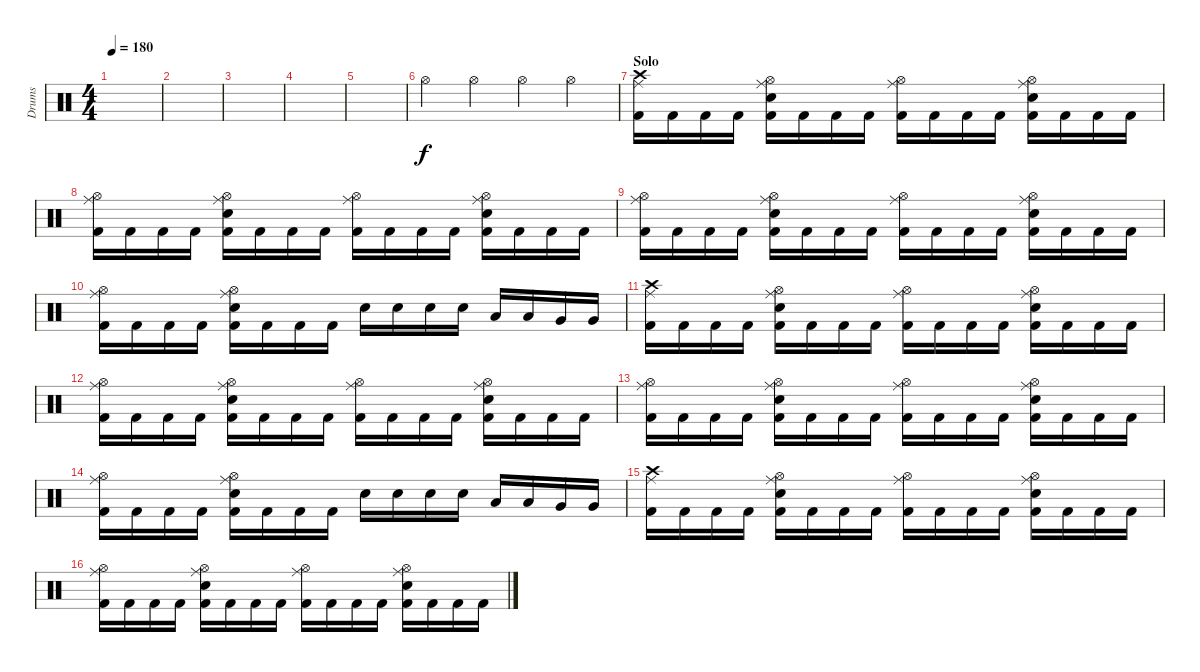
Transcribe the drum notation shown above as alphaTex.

\track ("Drums" "Drums") {instrument percussion}
\staff {score}
\articulation defaults
\ts (4 4)
\tempo 180
\clef neutral
\ks c
|
|
|
|
|
"Hi-Hat (open)".4 "Hi-Hat (open)".4 "Hi-Hat (open)".4 "Hi-Hat (open)".4 |
\section ("" "Solo")
("Kick (hit) 2" "Crash high (hit)" "Ride (middle)").16 "Kick (hit) 2".16 "Kick (hit) 2".16 "Kick (hit) 2".16 ("Kick (hit) 2" "Hi-Hat (open)" "Ride (middle)" "Electric Snare (hit)").16 "Kick (hit) 2".16 "Kick (hit) 2".16 "Kick (hit) 2".16 ("Kick (hit) 2" "Hi-Hat (open)" "Ride (middle)").16 "Kick (hit) 2".16 "Kick (hit) 2".16 "Kick (hit) 2".16 ("Kick (hit) 2" "Hi-Hat (open)" "Ride (middle)" "Electric Snare (hit)").16 "Kick (hit) 2".16 "Kick (hit) 2".16 "Kick (hit) 2".16 |
("Kick (hit) 2" "Hi-Hat (open)" "Ride (middle)").16 "Kick (hit) 2".16 "Kick (hit) 2".16 "Kick (hit) 2".16 ("Kick (hit) 2" "Hi-Hat (open)" "Ride (middle)" "Electric Snare (hit)").16 "Kick (hit) 2".16 "Kick (hit) 2".16 "Kick (hit) 2".16 ("Kick (hit) 2" "Hi-Hat (open)" "Ride (middle)").16 "Kick (hit) 2".16 "Kick (hit) 2".16 "Kick (hit) 2".16 ("Kick (hit) 2" "Hi-Hat (open)" "Ride (middle)" "Electric Snare (hit)").16 "Kick (hit) 2".16 "Kick (hit) 2".16 "Kick (hit) 2".16 |
("Kick (hit) 2" "Hi-Hat (open)" "Ride (middle)").16 "Kick (hit) 2".16 "Kick (hit) 2".16 "Kick (hit) 2".16 ("Kick (hit) 2" "Hi-Hat (open)" "Ride (middle)" "Electric Snare (hit)").16 "Kick (hit) 2".16 "Kick (hit) 2".16 "Kick (hit) 2".16 ("Kick (hit) 2" "Hi-Hat (open)" "Ride (middle)").16 "Kick (hit) 2".16 "Kick (hit) 2".16 "Kick (hit) 2".16 ("Kick (hit) 2" "Hi-Hat (open)" "Ride (middle)" "Electric Snare (hit)").16 "Kick (hit) 2".16 "Kick (hit) 2".16 "Kick (hit) 2".16 |
("Kick (hit) 2" "Hi-Hat (open)" "Ride (middle)").16 "Kick (hit) 2".16 "Kick (hit) 2".16 "Kick (hit) 2".16 ("Kick (hit) 2" "Hi-Hat (open)" "Ride (middle)" "Electric Snare (hit)").16 "Kick (hit) 2".16 "Kick (hit) 2".16 "Kick (hit) 2".16 "Electric Snare (hit)".16 "Electric Snare (hit)".16 "Electric Snare (hit)".16 "Electric Snare (hit)".16 "Low Tom (hit)".16 "Low Tom (hit)".16 "Very Low Tom (hit)".16 "Very Low Tom (hit)".16 |
("Kick (hit) 2" "Crash high (hit)" "Ride (middle)").16 "Kick (hit) 2".16 "Kick (hit) 2".16 "Kick (hit) 2".16 ("Kick (hit) 2" "Hi-Hat (open)" "Ride (middle)" "Electric Snare (hit)").16 "Kick (hit) 2".16 "Kick (hit) 2".16 "Kick (hit) 2".16 ("Kick (hit) 2" "Hi-Hat (open)" "Ride (middle)").16 "Kick (hit) 2".16 "Kick (hit) 2".16 "Kick (hit) 2".16 ("Kick (hit) 2" "Hi-Hat (open)" "Ride (middle)" "Electric Snare (hit)").16 "Kick (hit) 2".16 "Kick (hit) 2".16 "Kick (hit) 2".16 |
("Kick (hit) 2" "Hi-Hat (open)" "Ride (middle)").16 "Kick (hit) 2".16 "Kick (hit) 2".16 "Kick (hit) 2".16 ("Kick (hit) 2" "Hi-Hat (open)" "Ride (middle)" "Electric Snare (hit)").16 "Kick (hit) 2".16 "Kick (hit) 2".16 "Kick (hit) 2".16 ("Kick (hit) 2" "Hi-Hat (open)" "Ride (middle)").16 "Kick (hit) 2".16 "Kick (hit) 2".16 "Kick (hit) 2".16 ("Kick (hit) 2" "Hi-Hat (open)" "Ride (middle)" "Electric Snare (hit)").16 "Kick (hit) 2".16 "Kick (hit) 2".16 "Kick (hit) 2".16 |
("Kick (hit) 2" "Hi-Hat (open)" "Ride (middle)").16 "Kick (hit) 2".16 "Kick (hit) 2".16 "Kick (hit) 2".16 ("Kick (hit) 2" "Hi-Hat (open)" "Ride (middle)" "Electric Snare (hit)").16 "Kick (hit) 2".16 "Kick (hit) 2".16 "Kick (hit) 2".16 ("Kick (hit) 2" "Hi-Hat (open)" "Ride (middle)").16 "Kick (hit) 2".16 "Kick (hit) 2".16 "Kick (hit) 2".16 ("Kick (hit) 2" "Hi-Hat (open)" "Ride (middle)" "Electric Snare (hit)").16 "Kick (hit) 2".16 "Kick (hit) 2".16 "Kick (hit) 2".16 |
("Kick (hit) 2" "Hi-Hat (open)" "Ride (middle)").16 "Kick (hit) 2".16 "Kick (hit) 2".16 "Kick (hit) 2".16 ("Kick (hit) 2" "Hi-Hat (open)" "Ride (middle)" "Electric Snare (hit)").16 "Kick (hit) 2".16 "Kick (hit) 2".16 "Kick (hit) 2".16 "Electric Snare (hit)".16 "Electric Snare (hit)".16 "Electric Snare (hit)".16 "Electric Snare (hit)".16 "Low Tom (hit)".16 "Low Tom (hit)".16 "Very Low Tom (hit)".16 "Very Low Tom (hit)".16 |
("Kick (hit) 2" "Crash high (hit)" "Ride (middle)").16 "Kick (hit) 2".16 "Kick (hit) 2".16 "Kick (hit) 2".16 ("Kick (hit) 2" "Hi-Hat (open)" "Ride (middle)" "Electric Snare (hit)").16 "Kick (hit) 2".16 "Kick (hit) 2".16 "Kick (hit) 2".16 ("Kick (hit) 2" "Hi-Hat (open)" "Ride (middle)").16 "Kick (hit) 2".16 "Kick (hit) 2".16 "Kick (hit) 2".16 ("Kick (hit) 2" "Hi-Hat (open)" "Ride (middle)" "Electric Snare (hit)").16 "Kick (hit) 2".16 "Kick (hit) 2".16 "Kick (hit) 2".16 |
("Kick (hit) 2" "Hi-Hat (open)" "Ride (middle)").16 "Kick (hit) 2".16 "Kick (hit) 2".16 "Kick (hit) 2".16 ("Kick (hit) 2" "Hi-Hat (open)" "Ride (middle)" "Electric Snare (hit)").16 "Kick (hit) 2".16 "Kick (hit) 2".16 "Kick (hit) 2".16 ("Kick (hit) 2" "Hi-Hat (open)" "Ride (middle)").16 "Kick (hit) 2".16 "Kick (hit) 2".16 "Kick (hit) 2".16 ("Kick (hit) 2" "Hi-Hat (open)" "Ride (middle)" "Electric Snare (hit)").16 "Kick (hit) 2".16 "Kick (hit) 2".16 "Kick (hit) 2".16
